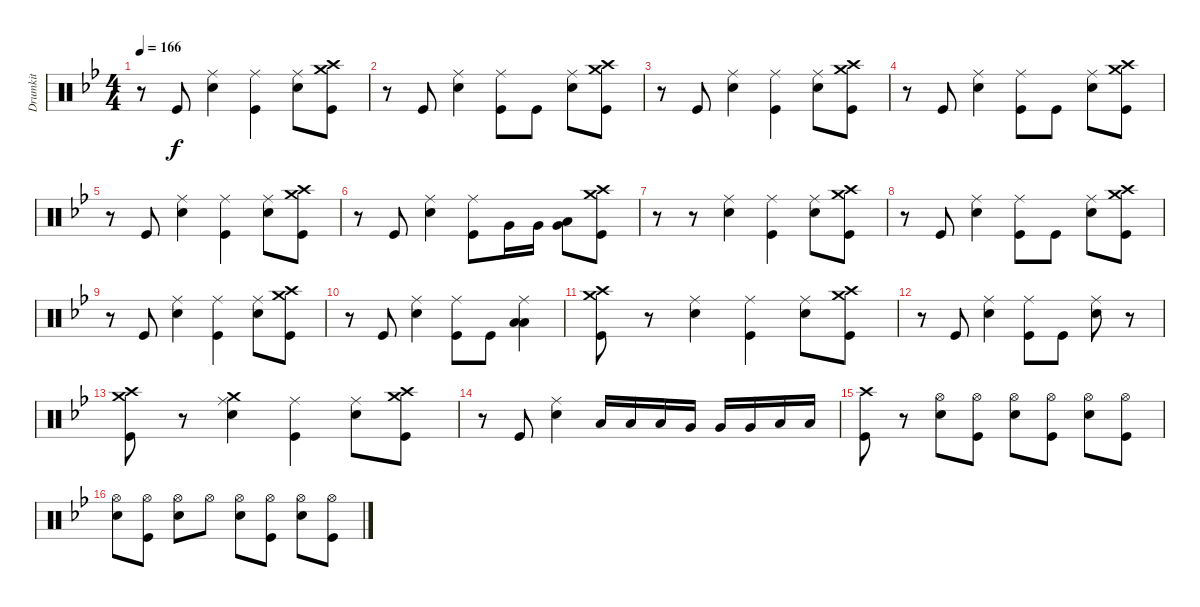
\track ("Drumkit" "Drumkit") {instrument percussion}
\staff {score}
\articulation defaults
\ts (4 4)
\tempo 166
\clef neutral
\ks gminor
r.8{dy f} "Kick (hit)".8 ("Snare (hit) 2" "Ride (middle)").4 ("Kick (hit)" "Ride (middle)").4 ("Snare (hit) 2" "Ride (middle)").8 ("Kick (hit)" "Crash high (hit)" "Crash medium (hit)").8 |
r.8 "Kick (hit)".8 ("Snare (hit) 2" "Ride (middle)").4 ("Kick (hit)" "Ride (middle)").8 "Kick (hit)".8 ("Snare (hit) 2" "Ride (middle)").8 ("Kick (hit)" "Crash high (hit)" "Crash medium (hit)").8 |
r.8 "Kick (hit)".8 ("Snare (hit) 2" "Ride (middle)").4 ("Kick (hit)" "Ride (middle)").4 ("Snare (hit) 2" "Ride (middle)").8 ("Kick (hit)" "Crash high (hit)" "Crash medium (hit)").8 |
r.8 "Kick (hit)".8 ("Snare (hit) 2" "Ride (middle)").4 ("Kick (hit)" "Ride (middle)").8 "Kick (hit)".8 ("Snare (hit) 2" "Ride (middle)").8 ("Kick (hit)" "Crash high (hit)" "Crash medium (hit)").8 |
r.8 "Kick (hit)".8 ("Snare (hit) 2" "Ride (middle)").4 ("Kick (hit)" "Ride (middle)").4 ("Snare (hit) 2" "Ride (middle)").8 ("Kick (hit)" "Crash high (hit)" "Crash medium (hit)").8 |
r.8 "Kick (hit)".8 ("Snare (hit) 2" "Ride (middle)").4 ("Kick (hit)" "Ride (middle)").8 "Very Low Tom (hit)".16 "Very Low Tom (hit)".16 ("Low Floor Tom (hit)" "Very Low Tom (hit)").8 ("Kick (hit)" "Crash high (hit)" "Crash medium (hit)").8 |
r.8 r.8 ("Snare (hit) 2" "Ride (middle)").4 ("Kick (hit)" "Ride (middle)").4 ("Snare (hit) 2" "Ride (middle)").8 ("Kick (hit)" "Crash high (hit)" "Crash medium (hit)").8 |
r.8 "Kick (hit)".8 ("Snare (hit) 2" "Ride (middle)").4 ("Kick (hit)" "Ride (middle)").8 "Kick (hit)".8 ("Snare (hit) 2" "Ride (middle)").8 ("Kick (hit)" "Crash high (hit)" "Crash medium (hit)").8 |
r.8 "Kick (hit)".8 ("Snare (hit) 2" "Ride (middle)").4 ("Kick (hit)" "Ride (middle)").4 ("Snare (hit) 2" "Ride (middle)").8 ("Kick (hit)" "Crash high (hit)" "Crash medium (hit)").8 |
r.8 "Kick (hit)".8 ("Snare (hit) 2" "Ride (middle)").4 ("Kick (hit)" "Ride (middle)").8 "Kick (hit)".8 ("Ride (middle)" "Low Tom (hit)" "Low Floor Tom (hit)").4 |
("Kick (hit)" "Crash high (hit)" "Crash medium (hit)").8 r.8 ("Snare (hit) 2" "Ride (middle)").4 ("Kick (hit)" "Ride (middle)").4 ("Snare (hit) 2" "Ride (middle)").8 ("Kick (hit)" "Crash high (hit)" "Crash medium (hit)").8 |
r.8 "Kick (hit)".8 ("Snare (hit) 2" "Ride (middle)").4 ("Kick (hit)" "Ride (middle)").8 "Kick (hit)".8 ("Snare (hit) 2" "Ride (middle)").8 r.8 |
("Kick (hit)" "Crash high (hit)" "Crash medium (hit)").8 r.8 ("Snare (hit) 2" "Ride (middle)" "Crash medium (hit)").4 ("Kick (hit)" "Ride (middle)").4 ("Snare (hit) 2" "Ride (middle)").8 ("Kick (hit)" "Crash high (hit)" "Crash medium (hit)").8 |
r.8 "Kick (hit)".8 ("Snare (hit) 2" "Ride (middle)").4 "Low Tom (hit)".16 "Low Tom (hit)".16 "Low Tom (hit)".16 "Very Low Tom (hit)".16 "Very Low Tom (hit)".16 "Very Low Tom (hit)".16 "Low Floor Tom (hit)".16 "Low Floor Tom (hit)".16 |
("Kick (hit)" "Crash high (hit)").8 r.8 ("Snare (hit) 2" "Hi-Hat (open)").8 ("Kick (hit)" "Hi-Hat (open)").8 ("Snare (hit) 2" "Hi-Hat (open)").8 ("Kick (hit)" "Hi-Hat (open)").8 ("Snare (hit) 2" "Hi-Hat (open)").8 ("Kick (hit)" "Hi-Hat (open)").8 |
("Snare (hit) 2" "Hi-Hat (open)").8 ("Kick (hit)" "Hi-Hat (open)").8 ("Snare (hit) 2" "Hi-Hat (open)").8 "Hi-Hat (open)".8 ("Snare (hit) 2" "Hi-Hat (open)").8 ("Kick (hit)" "Hi-Hat (open)").8 ("Snare (hit) 2" "Hi-Hat (open)").8 ("Kick (hit)" "Hi-Hat (open)").8
